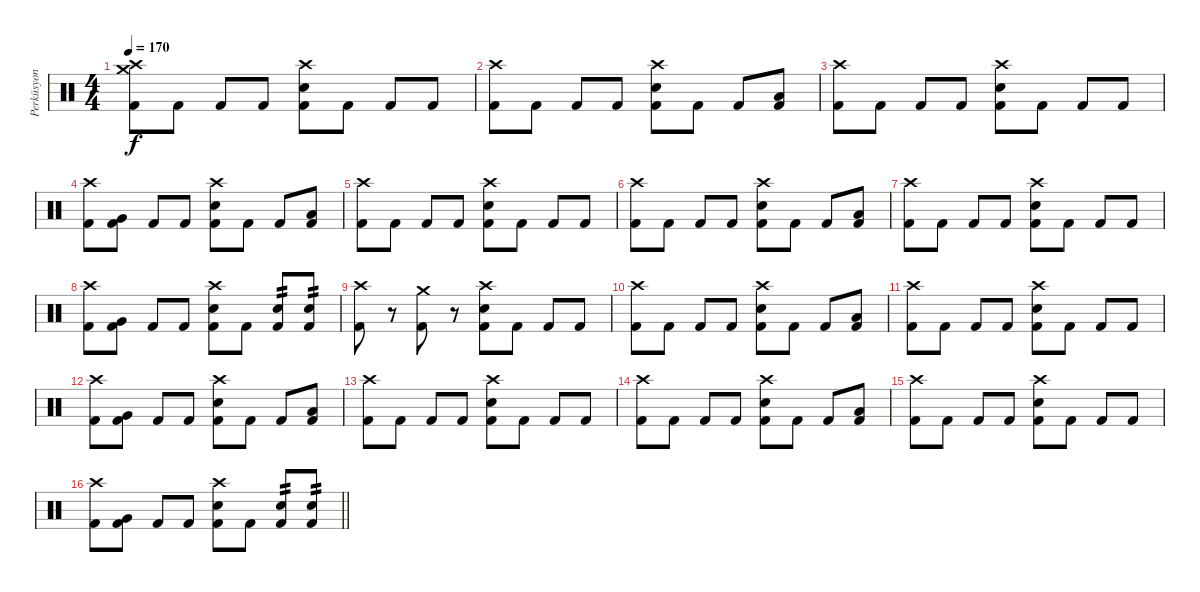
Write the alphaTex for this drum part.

\track ("Perküsyon" "Perküsyon") {instrument percussion}
\staff {score}
\articulation defaults
\ts (4 4)
\section ("" "")
\tempo 170
\clef neutral
\ks c
("Crash high (hit)" "Crash medium (hit)" "Kick (hit) 2").8{dy f} "Kick (hit) 2".8 "Kick (hit) 2".8 "Kick (hit) 2".8 ("Crash high (hit)" "Snare (hit) 2" "Kick (hit) 2").8 "Kick (hit) 2".8 "Kick (hit) 2".8 "Kick (hit) 2".8 |
("Crash high (hit)" "Kick (hit) 2").8 "Kick (hit) 2".8 "Kick (hit) 2".8 "Kick (hit) 2".8 ("Crash high (hit)" "Snare (hit) 2" "Kick (hit) 2").8 "Kick (hit) 2".8 "Kick (hit) 2".8 ("Low Floor Tom (hit)" "Kick (hit) 2").8 |
("Crash high (hit)" "Kick (hit) 2").8 "Kick (hit) 2".8 "Kick (hit) 2".8 "Kick (hit) 2".8 ("Crash high (hit)" "Snare (hit) 2" "Kick (hit) 2").8 "Kick (hit) 2".8 "Kick (hit) 2".8 "Kick (hit) 2".8 |
("Crash high (hit)" "Kick (hit) 2").8 ("Very Low Tom (hit)" "Kick (hit) 2").8 "Kick (hit) 2".8 "Kick (hit) 2".8 ("Crash high (hit)" "Snare (hit) 2" "Kick (hit) 2").8 "Kick (hit) 2".8 "Kick (hit) 2".8 ("Low Tom (hit)" "Kick (hit) 2").8 |
("Crash high (hit)" "Kick (hit) 2").8 "Kick (hit) 2".8 "Kick (hit) 2".8 "Kick (hit) 2".8 ("Crash high (hit)" "Snare (hit) 2" "Kick (hit) 2").8 "Kick (hit) 2".8 "Kick (hit) 2".8 "Kick (hit) 2".8 |
("Crash high (hit)" "Kick (hit) 2").8 "Kick (hit) 2".8 "Kick (hit) 2".8 "Kick (hit) 2".8 ("Crash high (hit)" "Snare (hit) 2" "Kick (hit) 2").8 "Kick (hit) 2".8 "Kick (hit) 2".8 ("Low Floor Tom (hit)" "Kick (hit) 2").8 |
("Crash high (hit)" "Kick (hit) 2").8 "Kick (hit) 2".8 "Kick (hit) 2".8 "Kick (hit) 2".8 ("Crash high (hit)" "Snare (hit) 2" "Kick (hit) 2").8 "Kick (hit) 2".8 "Kick (hit) 2".8 "Kick (hit) 2".8 |
("Crash high (hit)" "Kick (hit) 2").8 ("Very Low Tom (hit)" "Kick (hit) 2").8 "Kick (hit) 2".8 "Kick (hit) 2".8 ("Crash high (hit)" "Snare (hit) 2" "Kick (hit) 2").8 "Kick (hit) 2".8 ("Snare (hit) 2" "Kick (hit) 2").8{tp 2} ("Snare (hit) 2" "Kick (hit) 2").8{tp 2} |
("Crash high (hit)" "Kick (hit) 2").8 r.8 ("Crash medium (hit)" "Kick (hit) 2").8 r.8 ("Crash high (hit)" "Snare (hit) 2" "Kick (hit) 2").8 "Kick (hit) 2".8 "Kick (hit) 2".8 "Kick (hit) 2".8 |
("Crash high (hit)" "Kick (hit) 2").8 "Kick (hit) 2".8 "Kick (hit) 2".8 "Kick (hit) 2".8 ("Crash high (hit)" "Snare (hit) 2" "Kick (hit) 2").8 "Kick (hit) 2".8 "Kick (hit) 2".8 ("Low Floor Tom (hit)" "Kick (hit) 2").8 |
("Crash high (hit)" "Kick (hit) 2").8 "Kick (hit) 2".8 "Kick (hit) 2".8 "Kick (hit) 2".8 ("Crash high (hit)" "Snare (hit) 2" "Kick (hit) 2").8 "Kick (hit) 2".8 "Kick (hit) 2".8 "Kick (hit) 2".8 |
("Crash high (hit)" "Kick (hit) 2").8 ("Very Low Tom (hit)" "Kick (hit) 2").8 "Kick (hit) 2".8 "Kick (hit) 2".8 ("Crash high (hit)" "Snare (hit) 2" "Kick (hit) 2").8 "Kick (hit) 2".8 "Kick (hit) 2".8 ("Low Tom (hit)" "Kick (hit) 2").8 |
("Crash high (hit)" "Kick (hit) 2").8 "Kick (hit) 2".8 "Kick (hit) 2".8 "Kick (hit) 2".8 ("Crash high (hit)" "Snare (hit) 2" "Kick (hit) 2").8 "Kick (hit) 2".8 "Kick (hit) 2".8 "Kick (hit) 2".8 |
("Crash high (hit)" "Kick (hit) 2").8 "Kick (hit) 2".8 "Kick (hit) 2".8 "Kick (hit) 2".8 ("Crash high (hit)" "Snare (hit) 2" "Kick (hit) 2").8 "Kick (hit) 2".8 "Kick (hit) 2".8 ("Low Floor Tom (hit)" "Kick (hit) 2").8 |
("Crash high (hit)" "Kick (hit) 2").8 "Kick (hit) 2".8 "Kick (hit) 2".8 "Kick (hit) 2".8 ("Crash high (hit)" "Snare (hit) 2" "Kick (hit) 2").8 "Kick (hit) 2".8 "Kick (hit) 2".8 "Kick (hit) 2".8 |
\barLineRight lightlight
("Crash high (hit)" "Kick (hit) 2").8 ("Very Low Tom (hit)" "Kick (hit) 2").8 "Kick (hit) 2".8 "Kick (hit) 2".8 ("Crash high (hit)" "Snare (hit) 2" "Kick (hit) 2").8 "Kick (hit) 2".8 ("Snare (hit) 2" "Kick (hit) 2").8{tp 2} ("Snare (hit) 2" "Kick (hit) 2").8{tp 2}
